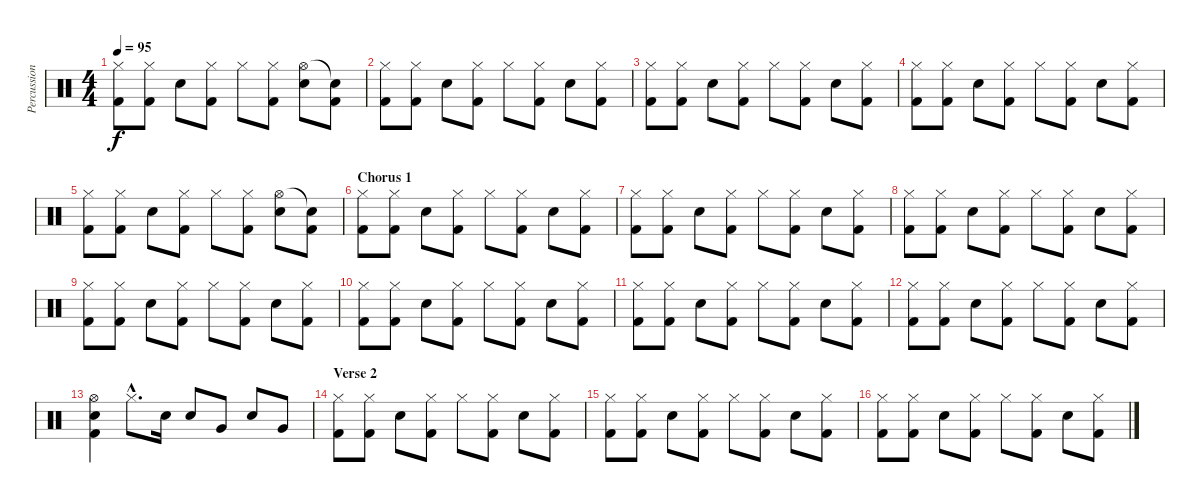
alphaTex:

\track ("Percussion" "Percussion") {instrument percussion}
\staff {score}
\articulation defaults
\ts (4 4)
\tempo 95
\clef neutral
\ks c
("Hi-Hat (closed)" "Kick (hit) 2").8{dy f} ("Hi-Hat (closed)" "Kick (hit) 2").8 "Snare (hit) 2".8 ("Hi-Hat (closed)" "Kick (hit) 2").8 "Hi-Hat (closed)".8 ("Hi-Hat (closed)" "Kick (hit) 2").8 ("Hi-Hat (open)" "Snare (hit) 2").8 ("Snare (hit)"{t} "Kick (hit) 2").8 |
("Hi-Hat (closed)" "Kick (hit) 2").8 ("Hi-Hat (closed)" "Kick (hit) 2").8 "Snare (hit) 2".8 ("Hi-Hat (closed)" "Kick (hit) 2").8 "Hi-Hat (closed)".8 ("Hi-Hat (closed)" "Kick (hit) 2").8 "Snare (hit) 2".8 ("Hi-Hat (closed)" "Kick (hit) 2").8 |
("Hi-Hat (closed)" "Kick (hit) 2").8 ("Hi-Hat (closed)" "Kick (hit) 2").8 "Snare (hit) 2".8 ("Hi-Hat (closed)" "Kick (hit) 2").8 "Hi-Hat (closed)".8 ("Hi-Hat (closed)" "Kick (hit) 2").8 "Snare (hit) 2".8 ("Hi-Hat (closed)" "Kick (hit) 2").8 |
("Hi-Hat (closed)" "Kick (hit) 2").8 ("Hi-Hat (closed)" "Kick (hit) 2").8 "Snare (hit) 2".8 ("Hi-Hat (closed)" "Kick (hit) 2").8 "Hi-Hat (closed)".8 ("Hi-Hat (closed)" "Kick (hit) 2").8 "Snare (hit) 2".8 ("Hi-Hat (closed)" "Kick (hit) 2").8 |
("Hi-Hat (closed)" "Kick (hit) 2").8 ("Hi-Hat (closed)" "Kick (hit) 2").8 "Snare (hit) 2".8 ("Hi-Hat (closed)" "Kick (hit) 2").8 "Hi-Hat (closed)".8 ("Hi-Hat (closed)" "Kick (hit) 2").8 ("Hi-Hat (open)" "Snare (hit) 2").8 ("Snare (hit)"{t} "Kick (hit) 2").8 |
\section ("" "Chorus 1")
("Hi-Hat (closed)" "Kick (hit) 2").8 ("Hi-Hat (closed)" "Kick (hit) 2").8 "Snare (hit) 2".8 ("Hi-Hat (closed)" "Kick (hit) 2").8 "Hi-Hat (closed)".8 ("Hi-Hat (closed)" "Kick (hit) 2").8 "Snare (hit) 2".8 ("Hi-Hat (closed)" "Kick (hit) 2").8 |
("Hi-Hat (closed)" "Kick (hit) 2").8 ("Hi-Hat (closed)" "Kick (hit) 2").8 "Snare (hit) 2".8 ("Hi-Hat (closed)" "Kick (hit) 2").8 "Hi-Hat (closed)".8 ("Hi-Hat (closed)" "Kick (hit) 2").8 "Snare (hit) 2".8 ("Hi-Hat (closed)" "Kick (hit) 2").8 |
("Hi-Hat (closed)" "Kick (hit) 2").8 ("Hi-Hat (closed)" "Kick (hit) 2").8 "Snare (hit) 2".8 ("Hi-Hat (closed)" "Kick (hit) 2").8 "Hi-Hat (closed)".8 ("Hi-Hat (closed)" "Kick (hit) 2").8 "Snare (hit) 2".8 ("Hi-Hat (closed)" "Kick (hit) 2").8 |
("Hi-Hat (closed)" "Kick (hit) 2").8 ("Hi-Hat (closed)" "Kick (hit) 2").8 "Snare (hit) 2".8 ("Hi-Hat (closed)" "Kick (hit) 2").8 "Hi-Hat (closed)".8 ("Hi-Hat (closed)" "Kick (hit) 2").8 "Snare (hit) 2".8 ("Hi-Hat (closed)" "Kick (hit) 2").8 |
("Hi-Hat (closed)" "Kick (hit) 2").8 ("Hi-Hat (closed)" "Kick (hit) 2").8 "Snare (hit) 2".8 ("Hi-Hat (closed)" "Kick (hit) 2").8 "Hi-Hat (closed)".8 ("Hi-Hat (closed)" "Kick (hit) 2").8 "Snare (hit) 2".8 ("Hi-Hat (closed)" "Kick (hit) 2").8 |
("Hi-Hat (closed)" "Kick (hit) 2").8 ("Hi-Hat (closed)" "Kick (hit) 2").8 "Snare (hit) 2".8 ("Hi-Hat (closed)" "Kick (hit) 2").8 "Hi-Hat (closed)".8 ("Hi-Hat (closed)" "Kick (hit) 2").8 "Snare (hit) 2".8 ("Hi-Hat (closed)" "Kick (hit) 2").8 |
("Hi-Hat (closed)" "Kick (hit) 2").8 ("Hi-Hat (closed)" "Kick (hit) 2").8 "Snare (hit) 2".8 ("Hi-Hat (closed)" "Kick (hit) 2").8 "Hi-Hat (closed)".8 ("Hi-Hat (closed)" "Kick (hit) 2").8 "Snare (hit) 2".8 ("Hi-Hat (closed)" "Kick (hit) 2").8 |
("Hi-Hat (open)" "Snare (hit) 2" "Kick (hit) 2").4 "Hi-Hat (closed)"{hac}.8{d} "Snare (hit) 2".16 "Snare (hit) 2".8 "Very Low Tom (hit)".8 "Snare (hit) 2".8 "Very Low Tom (hit)".8 |
\section ("" "Verse 2")
("Hi-Hat (closed)" "Kick (hit) 2").8 ("Hi-Hat (closed)" "Kick (hit) 2").8 "Snare (hit) 2".8 ("Hi-Hat (closed)" "Kick (hit) 2").8 "Hi-Hat (closed)".8 ("Hi-Hat (closed)" "Kick (hit) 2").8 "Snare (hit) 2".8 ("Hi-Hat (closed)" "Kick (hit) 2").8 |
("Hi-Hat (closed)" "Kick (hit) 2").8 ("Hi-Hat (closed)" "Kick (hit) 2").8 "Snare (hit) 2".8 ("Hi-Hat (closed)" "Kick (hit) 2").8 "Hi-Hat (closed)".8 ("Hi-Hat (closed)" "Kick (hit) 2").8 "Snare (hit) 2".8 ("Hi-Hat (closed)" "Kick (hit) 2").8 |
("Hi-Hat (closed)" "Kick (hit) 2").8 ("Hi-Hat (closed)" "Kick (hit) 2").8 "Snare (hit) 2".8 ("Hi-Hat (closed)" "Kick (hit) 2").8 "Hi-Hat (closed)".8 ("Hi-Hat (closed)" "Kick (hit) 2").8 "Snare (hit) 2".8 ("Hi-Hat (closed)" "Kick (hit) 2").8
